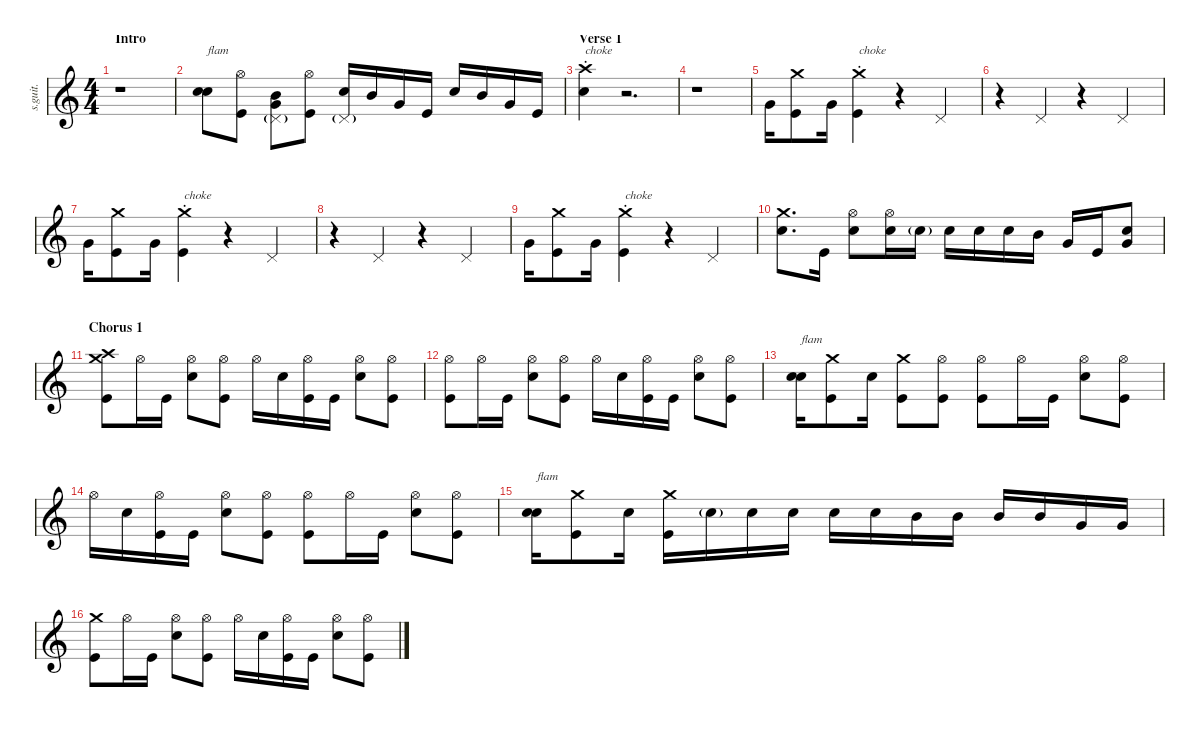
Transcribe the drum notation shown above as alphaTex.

\defaultSystemsLayout 4
\hideDynamics
\bracketExtendMode nobrackets
\track ("Matt Helders" "s.guit.") {instrument percussion}
\staff {score}
\articulation defaults
\ts (4 4)
\beaming (8 2 2 2 2)
\section ("" "Intro")
\tempo (97 hide)
\clef g2
\ks c
r.1{dy f} |
("Snare (hit) 2" "Snare (hit) 2").8{bd 30 txt "flam" lyrics (0 "") lyrics (1 "") lyrics (2 "") lyrics (3 "") lyrics (4 "")} ("Hi-Hat (open)" "Kick (hit)").8{lyrics (0 "") lyrics (1 "") lyrics (2 "") lyrics (3 "") lyrics (4 "")} ("Mid Tom (hit)" "Very Low Tom (hit)" "Pedal Hi-Hat (hit)"{g}).8{bd 30 lyrics (0 "") lyrics (1 "") lyrics (2 "") lyrics (3 "") lyrics (4 "")} ("Hi-Hat (open)" "Kick (hit)").8{lyrics (0 "") lyrics (1 "") lyrics (2 "") lyrics (3 "") lyrics (4 "")} ("Snare (hit) 2" "Pedal Hi-Hat (hit)"{g}).16{lyrics (0 "") lyrics (1 "") lyrics (2 "") lyrics (3 "") lyrics (4 "")} "Mid Tom (hit)".16{lyrics (0 "") lyrics (1 "") lyrics (2 "") lyrics (3 "") lyrics (4 "")} "Very Low Tom (hit)".16{lyrics (0 "") lyrics (1 "") lyrics (2 "") lyrics (3 "") lyrics (4 "")} "Kick (hit)".16{lyrics (0 "") lyrics (1 "") lyrics (2 "") lyrics (3 "") lyrics (4 "")} "Snare (hit) 2".16{lyrics (0 "") lyrics (1 "") lyrics (2 "") lyrics (3 "") lyrics (4 "")} "Mid Tom (hit)".16{lyrics (0 "") lyrics (1 "") lyrics (2 "") lyrics (3 "") lyrics (4 "")} "Very Low Tom (hit)".16{lyrics (0 "") lyrics (1 "") lyrics (2 "") lyrics (3 "") lyrics (4 "")} "Kick (hit)".16{lyrics (0 "") lyrics (1 "") lyrics (2 "") lyrics (3 "") lyrics (4 "")} |
\section ("" "Verse 1")
("Crash high (choke)" "Snare (hit) 2").4{txt "choke" lyrics (0 "") lyrics (1 "") lyrics (2 "") lyrics (3 "") lyrics (4 "")} r.2{d} |
r.1 |
"Very Low Tom (hit)".16{lyrics (0 "") lyrics (1 "") lyrics (2 "") lyrics (3 "") lyrics (4 "")} ("Crash medium (hit)" "Kick (hit)").8{lyrics (0 "") lyrics (1 "") lyrics (2 "") lyrics (3 "") lyrics (4 "")} "Very Low Tom (hit)".16{lyrics (0 "") lyrics (1 "") lyrics (2 "") lyrics (3 "") lyrics (4 "")} ("Crash medium (choke)" "Kick (hit)").4{txt "choke" lyrics (0 "") lyrics (1 "") lyrics (2 "") lyrics (3 "") lyrics (4 "")} r.4 "Pedal Hi-Hat (hit)".4{lyrics (0 "") lyrics (1 "") lyrics (2 "") lyrics (3 "") lyrics (4 "")} |
r.4 "Pedal Hi-Hat (hit)".4{lyrics (0 "") lyrics (1 "") lyrics (2 "") lyrics (3 "") lyrics (4 "")} r.4 "Pedal Hi-Hat (hit)".4{lyrics (0 "") lyrics (1 "") lyrics (2 "") lyrics (3 "") lyrics (4 "")} |
"Very Low Tom (hit)".16{lyrics (0 "") lyrics (1 "") lyrics (2 "") lyrics (3 "") lyrics (4 "")} ("Crash medium (hit)" "Kick (hit)").8{lyrics (0 "") lyrics (1 "") lyrics (2 "") lyrics (3 "") lyrics (4 "")} "Very Low Tom (hit)".16{lyrics (0 "") lyrics (1 "") lyrics (2 "") lyrics (3 "") lyrics (4 "")} ("Crash medium (choke)" "Kick (hit)").4{txt "choke" lyrics (0 "") lyrics (1 "") lyrics (2 "") lyrics (3 "") lyrics (4 "")} r.4 "Pedal Hi-Hat (hit)".4{lyrics (0 "") lyrics (1 "") lyrics (2 "") lyrics (3 "") lyrics (4 "")} |
r.4 "Pedal Hi-Hat (hit)".4{lyrics (0 "") lyrics (1 "") lyrics (2 "") lyrics (3 "") lyrics (4 "")} r.4 "Pedal Hi-Hat (hit)".4{lyrics (0 "") lyrics (1 "") lyrics (2 "") lyrics (3 "") lyrics (4 "")} |
"Very Low Tom (hit)".16{lyrics (0 "") lyrics (1 "") lyrics (2 "") lyrics (3 "") lyrics (4 "")} ("Crash medium (hit)" "Kick (hit)").8{lyrics (0 "") lyrics (1 "") lyrics (2 "") lyrics (3 "") lyrics (4 "")} "Very Low Tom (hit)".16{lyrics (0 "") lyrics (1 "") lyrics (2 "") lyrics (3 "") lyrics (4 "")} ("Crash medium (choke)" "Kick (hit)").4{txt "choke" lyrics (0 "") lyrics (1 "") lyrics (2 "") lyrics (3 "") lyrics (4 "")} r.4 "Pedal Hi-Hat (hit)".4{lyrics (0 "") lyrics (1 "") lyrics (2 "") lyrics (3 "") lyrics (4 "")} |
("Crash medium (hit)" "Snare (hit) 2").8{d lyrics (0 "") lyrics (1 "") lyrics (2 "") lyrics (3 "") lyrics (4 "")} "Kick (hit)".16{lyrics (0 "") lyrics (1 "") lyrics (2 "") lyrics (3 "") lyrics (4 "")} ("Hi-Hat (open)" "Snare (hit) 2").8{lyrics (0 "") lyrics (1 "") lyrics (2 "") lyrics (3 "") lyrics (4 "")} ("Hi-Hat (open)" "Snare (hit) 2").16{lyrics (0 "") lyrics (1 "") lyrics (2 "") lyrics (3 "") lyrics (4 "")} "Snare (hit) 2"{g}.16{lyrics (0 "") lyrics (1 "") lyrics (2 "") lyrics (3 "") lyrics (4 "") dy mp} "Snare (hit) 2".16{lyrics (0 "") lyrics (1 "") lyrics (2 "") lyrics (3 "") lyrics (4 "") dy f} "Snare (hit) 2".16{lyrics (0 "") lyrics (1 "") lyrics (2 "") lyrics (3 "") lyrics (4 "")} "Snare (hit) 2".16{lyrics (0 "") lyrics (1 "") lyrics (2 "") lyrics (3 "") lyrics (4 "")} "Mid Tom (hit)".16{lyrics (0 "") lyrics (1 "") lyrics (2 "") lyrics (3 "") lyrics (4 "")} "Very Low Tom (hit)".16{lyrics (0 "") lyrics (1 "") lyrics (2 "") lyrics (3 "") lyrics (4 "")} "Kick (hit)".16{lyrics (0 "") lyrics (1 "") lyrics (2 "") lyrics (3 "") lyrics (4 "")} ("Snare (hit) 2" "Very Low Tom (hit)").8{bd 30 lyrics (0 "") lyrics (1 "") lyrics (2 "") lyrics (3 "") lyrics (4 "")} |
\section ("" "Chorus 1")
("Crash high (hit)" "Crash medium (hit)" "Kick (hit)").8{lyrics (0 "") lyrics (1 "") lyrics (2 "") lyrics (3 "") lyrics (4 "")} "Hi-Hat (open)".16{lyrics (0 "") lyrics (1 "") lyrics (2 "") lyrics (3 "") lyrics (4 "")} "Kick (hit)".16{lyrics (0 "") lyrics (1 "") lyrics (2 "") lyrics (3 "") lyrics (4 "")} ("Hi-Hat (open)" "Snare (hit) 2").8{lyrics (0 "") lyrics (1 "") lyrics (2 "") lyrics (3 "") lyrics (4 "")} ("Hi-Hat (open)" "Kick (hit)").8{lyrics (0 "") lyrics (1 "") lyrics (2 "") lyrics (3 "") lyrics (4 "")} "Hi-Hat (open)".16{lyrics (0 "") lyrics (1 "") lyrics (2 "") lyrics (3 "") lyrics (4 "")} "Snare (hit) 2".16{lyrics (0 "") lyrics (1 "") lyrics (2 "") lyrics (3 "") lyrics (4 "")} ("Hi-Hat (open)" "Kick (hit)").16{lyrics (0 "") lyrics (1 "") lyrics (2 "") lyrics (3 "") lyrics (4 "")} "Kick (hit)".16{lyrics (0 "") lyrics (1 "") lyrics (2 "") lyrics (3 "") lyrics (4 "")} ("Hi-Hat (open)" "Snare (hit) 2").8{lyrics (0 "") lyrics (1 "") lyrics (2 "") lyrics (3 "") lyrics (4 "")} ("Hi-Hat (open)" "Kick (hit)").8{lyrics (0 "") lyrics (1 "") lyrics (2 "") lyrics (3 "") lyrics (4 "")} |
("Hi-Hat (open)" "Kick (hit)").8{lyrics (0 "") lyrics (1 "") lyrics (2 "") lyrics (3 "") lyrics (4 "")} "Hi-Hat (open)".16{lyrics (0 "") lyrics (1 "") lyrics (2 "") lyrics (3 "") lyrics (4 "")} "Kick (hit)".16{lyrics (0 "") lyrics (1 "") lyrics (2 "") lyrics (3 "") lyrics (4 "")} ("Hi-Hat (open)" "Snare (hit) 2").8{lyrics (0 "") lyrics (1 "") lyrics (2 "") lyrics (3 "") lyrics (4 "")} ("Hi-Hat (open)" "Kick (hit)").8{lyrics (0 "") lyrics (1 "") lyrics (2 "") lyrics (3 "") lyrics (4 "")} "Hi-Hat (open)".16{lyrics (0 "") lyrics (1 "") lyrics (2 "") lyrics (3 "") lyrics (4 "")} "Snare (hit) 2".16{lyrics (0 "") lyrics (1 "") lyrics (2 "") lyrics (3 "") lyrics (4 "")} ("Hi-Hat (open)" "Kick (hit)").16{lyrics (0 "") lyrics (1 "") lyrics (2 "") lyrics (3 "") lyrics (4 "")} "Kick (hit)".16{lyrics (0 "") lyrics (1 "") lyrics (2 "") lyrics (3 "") lyrics (4 "")} ("Hi-Hat (open)" "Snare (hit) 2").8{lyrics (0 "") lyrics (1 "") lyrics (2 "") lyrics (3 "") lyrics (4 "")} ("Hi-Hat (open)" "Kick (hit)").8{lyrics (0 "") lyrics (1 "") lyrics (2 "") lyrics (3 "") lyrics (4 "")} |
("Snare (hit) 2" "Snare (hit) 2").16{bd 30 txt "flam" lyrics (0 "") lyrics (1 "") lyrics (2 "") lyrics (3 "") lyrics (4 "")} ("Crash medium (hit)" "Kick (hit)").8{lyrics (0 "") lyrics (1 "") lyrics (2 "") lyrics (3 "") lyrics (4 "")} "Snare (hit) 2".16{lyrics (0 "") lyrics (1 "") lyrics (2 "") lyrics (3 "") lyrics (4 "")} ("Crash medium (hit)" "Kick (hit)").8{lyrics (0 "") lyrics (1 "") lyrics (2 "") lyrics (3 "") lyrics (4 "")} ("Hi-Hat (open)" "Kick (hit)").8{lyrics (0 "") lyrics (1 "") lyrics (2 "") lyrics (3 "") lyrics (4 "")} ("Hi-Hat (open)" "Kick (hit)").8{lyrics (0 "") lyrics (1 "") lyrics (2 "") lyrics (3 "") lyrics (4 "")} "Hi-Hat (open)".16{lyrics (0 "") lyrics (1 "") lyrics (2 "") lyrics (3 "") lyrics (4 "")} "Kick (hit)".16{lyrics (0 "") lyrics (1 "") lyrics (2 "") lyrics (3 "") lyrics (4 "")} ("Hi-Hat (open)" "Snare (hit) 2").8{lyrics (0 "") lyrics (1 "") lyrics (2 "") lyrics (3 "") lyrics (4 "")} ("Hi-Hat (open)" "Kick (hit)").8{lyrics (0 "") lyrics (1 "") lyrics (2 "") lyrics (3 "") lyrics (4 "")} |
"Hi-Hat (open)".16{lyrics (0 "") lyrics (1 "") lyrics (2 "") lyrics (3 "") lyrics (4 "")} "Snare (hit) 2".16{lyrics (0 "") lyrics (1 "") lyrics (2 "") lyrics (3 "") lyrics (4 "")} ("Hi-Hat (open)" "Kick (hit)").16{lyrics (0 "") lyrics (1 "") lyrics (2 "") lyrics (3 "") lyrics (4 "")} "Kick (hit)".16{lyrics (0 "") lyrics (1 "") lyrics (2 "") lyrics (3 "") lyrics (4 "")} ("Hi-Hat (open)" "Snare (hit) 2").8{lyrics (0 "") lyrics (1 "") lyrics (2 "") lyrics (3 "") lyrics (4 "")} ("Hi-Hat (open)" "Kick (hit)").8{lyrics (0 "") lyrics (1 "") lyrics (2 "") lyrics (3 "") lyrics (4 "")} ("Hi-Hat (open)" "Kick (hit)").8{lyrics (0 "") lyrics (1 "") lyrics (2 "") lyrics (3 "") lyrics (4 "")} "Hi-Hat (open)".16{lyrics (0 "") lyrics (1 "") lyrics (2 "") lyrics (3 "") lyrics (4 "")} "Kick (hit)".16{lyrics (0 "") lyrics (1 "") lyrics (2 "") lyrics (3 "") lyrics (4 "")} ("Hi-Hat (open)" "Snare (hit) 2").8{lyrics (0 "") lyrics (1 "") lyrics (2 "") lyrics (3 "") lyrics (4 "")} ("Hi-Hat (open)" "Kick (hit)").8{lyrics (0 "") lyrics (1 "") lyrics (2 "") lyrics (3 "") lyrics (4 "")} |
("Snare (hit) 2" "Snare (hit) 2").16{bd 30 txt "flam" lyrics (0 "") lyrics (1 "") lyrics (2 "") lyrics (3 "") lyrics (4 "")} ("Crash medium (hit)" "Kick (hit)").8{lyrics (0 "") lyrics (1 "") lyrics (2 "") lyrics (3 "") lyrics (4 "")} "Snare (hit) 2".16{lyrics (0 "") lyrics (1 "") lyrics (2 "") lyrics (3 "") lyrics (4 "")} ("Crash medium (hit)" "Kick (hit)").16{lyrics (0 "") lyrics (1 "") lyrics (2 "") lyrics (3 "") lyrics (4 "")} "Snare (hit) 2"{g}.16{lyrics (0 "") lyrics (1 "") lyrics (2 "") lyrics (3 "") lyrics (4 "") dy mp} "Snare (hit) 2".16{lyrics (0 "") lyrics (1 "") lyrics (2 "") lyrics (3 "") lyrics (4 "") dy f} "Snare (hit) 2".16{lyrics (0 "") lyrics (1 "") lyrics (2 "") lyrics (3 "") lyrics (4 "")} "Snare (hit) 2".16{lyrics (0 "") lyrics (1 "") lyrics (2 "") lyrics (3 "") lyrics (4 "")} "Snare (hit) 2".16{lyrics (0 "") lyrics (1 "") lyrics (2 "") lyrics (3 "") lyrics (4 "")} "Mid Tom (hit)".16{lyrics (0 "") lyrics (1 "") lyrics (2 "") lyrics (3 "") lyrics (4 "")} "Mid Tom (hit)".16{lyrics (0 "") lyrics (1 "") lyrics (2 "") lyrics (3 "") lyrics (4 "")} "Mid Tom (hit)".16{lyrics (0 "") lyrics (1 "") lyrics (2 "") lyrics (3 "") lyrics (4 "")} "Mid Tom (hit)".16{lyrics (0 "") lyrics (1 "") lyrics (2 "") lyrics (3 "") lyrics (4 "")} "Very Low Tom (hit)".16{lyrics (0 "") lyrics (1 "") lyrics (2 "") lyrics (3 "") lyrics (4 "")} "Very Low Tom (hit)".16{lyrics (0 "") lyrics (1 "") lyrics (2 "") lyrics (3 "") lyrics (4 "")} |
("Crash medium (hit)" "Kick (hit)").8{lyrics (0 "") lyrics (1 "") lyrics (2 "") lyrics (3 "") lyrics (4 "")} "Hi-Hat (open)".16{lyrics (0 "") lyrics (1 "") lyrics (2 "") lyrics (3 "") lyrics (4 "")} "Kick (hit)".16{lyrics (0 "") lyrics (1 "") lyrics (2 "") lyrics (3 "") lyrics (4 "")} ("Hi-Hat (open)" "Snare (hit) 2").8{lyrics (0 "") lyrics (1 "") lyrics (2 "") lyrics (3 "") lyrics (4 "")} ("Hi-Hat (open)" "Kick (hit)").8{lyrics (0 "") lyrics (1 "") lyrics (2 "") lyrics (3 "") lyrics (4 "")} "Hi-Hat (open)".16{lyrics (0 "") lyrics (1 "") lyrics (2 "") lyrics (3 "") lyrics (4 "")} "Snare (hit) 2".16{lyrics (0 "") lyrics (1 "") lyrics (2 "") lyrics (3 "") lyrics (4 "")} ("Hi-Hat (open)" "Kick (hit)").16{lyrics (0 "") lyrics (1 "") lyrics (2 "") lyrics (3 "") lyrics (4 "")} "Kick (hit)".16{lyrics (0 "") lyrics (1 "") lyrics (2 "") lyrics (3 "") lyrics (4 "")} ("Hi-Hat (open)" "Snare (hit) 2").8{lyrics (0 "") lyrics (1 "") lyrics (2 "") lyrics (3 "") lyrics (4 "")} ("Hi-Hat (open)" "Kick (hit)").8{lyrics (0 "") lyrics (1 "") lyrics (2 "") lyrics (3 "") lyrics (4 "")}
